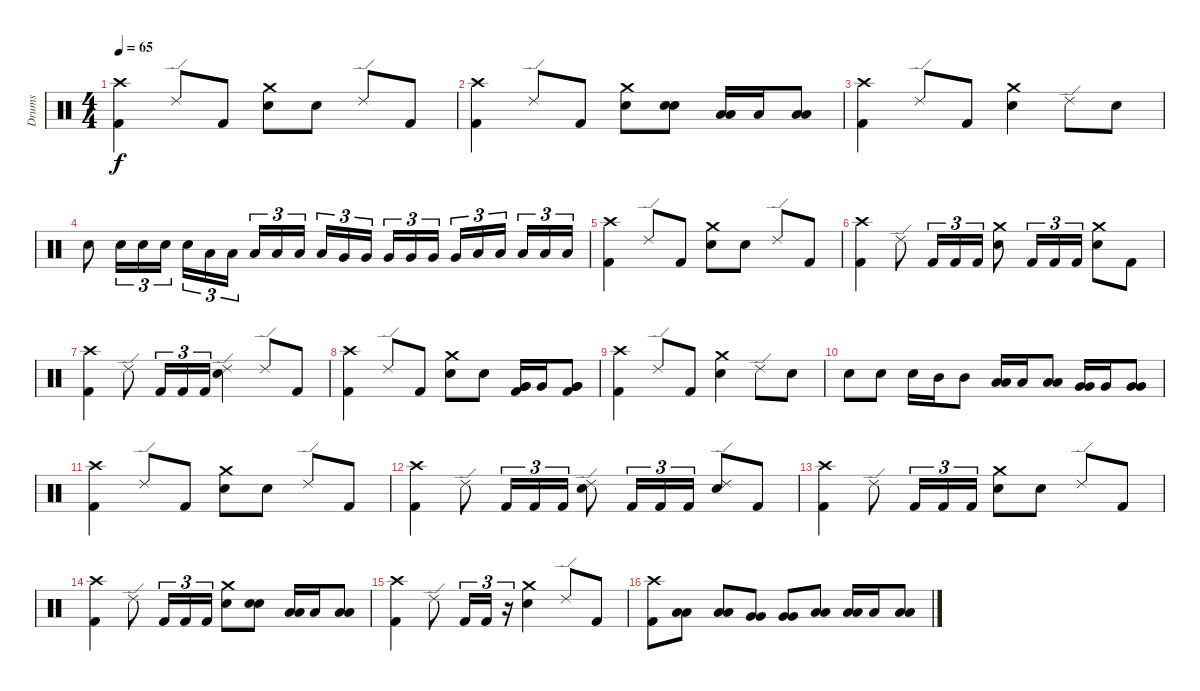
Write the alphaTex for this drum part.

\track ("Drums" "Drums") {instrument percussion}
\staff {score}
\articulation defaults
\ts (4 4)
\tempo 65
\clef neutral
\ks c
("Crash high (hit)" "Kick (hit) 2").4{dy f} "Ride (edge) 2".8 "Kick (hit) 2".8 ("Crash medium (hit)" "Electric Snare (hit)").8 "Electric Snare (hit)".8 "Ride (edge) 2".8 "Kick (hit) 2".8 |
("Crash high (hit)" "Kick (hit) 2").4 "Ride (edge) 2".8 "Kick (hit) 2".8 ("Crash medium (hit)" "Electric Snare (hit)").8 ("Electric Snare (hit)" "Electric Snare (hit)").8{bu 60} ("Low Floor Tom (hit)" "Low Floor Tom (hit)").16{bu 60} "Low Floor Tom (hit)".16 ("Low Floor Tom (hit)" "Low Floor Tom (hit)").8{bu 60} |
("Crash high (hit)" "Kick (hit) 2").4 "Ride (edge) 2".8 "Kick (hit) 2".8 ("Crash medium (hit)" "Electric Snare (hit)").4 "Ride (edge) 2".8 "Electric Snare (hit)".8 |
"Electric Snare (hit)".8 "Electric Snare (hit)".16{tu (3 2)} "Electric Snare (hit)".16{tu (3 2)} "Electric Snare (hit)".16{tu (3 2)} "Electric Snare (hit)".16{tu (3 2)} "Low Tom (hit)".16{tu (3 2)} "Low Tom (hit)".16{tu (3 2)} "Low Tom (hit)".16{tu (3 2)} "Low Tom (hit)".16{tu (3 2)} "Low Tom (hit)".16{tu (3 2)} "Low Tom (hit)".16{tu (3 2)} "Very Low Tom (hit)".16{tu (3 2)} "Very Low Tom (hit)".16{tu (3 2)} "Very Low Tom (hit)".16{tu (3 2)} "Very Low Tom (hit)".16{tu (3 2)} "Very Low Tom (hit)".16{tu (3 2)} "Very Low Tom (hit)".16{tu (3 2)} "Low Floor Tom (hit)".16{tu (3 2)} "Low Floor Tom (hit)".16{tu (3 2)} "Low Floor Tom (hit)".16{tu (3 2)} "Low Floor Tom (hit)".16{tu (3 2)} "Low Floor Tom (hit)".16{tu (3 2)} |
("Crash high (hit)" "Kick (hit) 2").4 "Ride (edge) 2".8 "Kick (hit) 2".8 ("Crash medium (hit)" "Electric Snare (hit)").8 "Electric Snare (hit)".8 "Ride (edge) 2".8 "Kick (hit) 2".8 |
("Crash high (hit)" "Kick (hit) 2").4 "Ride (edge) 2".8 "Kick (hit) 2".16{tu (3 2)} "Kick (hit) 2".16{tu (3 2)} "Kick (hit) 2".16{tu (3 2)} ("Crash medium (hit)" "Electric Snare (hit)").8 "Kick (hit) 2".16{tu (3 2)} "Kick (hit) 2".16{tu (3 2)} "Kick (hit) 2".16{tu (3 2)} ("Crash medium (hit)" "Electric Snare (hit)").8 "Kick (hit) 2".8 |
("Crash high (hit)" "Kick (hit) 2").4 "Ride (edge) 2".8 "Kick (hit) 2".16{tu (3 2)} "Kick (hit) 2".16{tu (3 2)} "Kick (hit) 2".16{tu (3 2)} ("Ride (edge) 2" "Electric Snare (hit)").4 "Ride (edge) 2".8 "Kick (hit) 2".8 |
("Crash high (hit)" "Kick (hit) 2").4 "Ride (edge) 2".8 "Kick (hit) 2".8 ("Crash medium (hit)" "Electric Snare (hit)").8 "Electric Snare (hit)".8 ("Very Low Tom (hit)" "Very Low Tom (hit)" "Kick (hit) 2").16{bu 60} "Very Low Tom (hit)".16 ("Very Low Tom (hit)" "Very Low Tom (hit)" "Kick (hit) 2").8{bu 60} |
("Crash high (hit)" "Kick (hit) 2").4 "Ride (edge) 2".8 "Kick (hit) 2".8 ("Crash medium (hit)" "Electric Snare (hit)").4 "Ride (edge) 2".8 "Electric Snare (hit)".8 |
"Electric Snare (hit)".8 "Electric Snare (hit)".8 "Electric Snare (hit)".16 "Mid Tom (hit)".16 "Mid Tom (hit)".8 ("Low Tom (hit)" "Low Tom (hit)").16{bu 60} "Low Tom (hit)".16 ("Low Tom (hit)" "Low Tom (hit)").8{bu 60} ("Very Low Tom (hit)" "Very Low Tom (hit)").16{bu 60} "Very Low Tom (hit)".16 ("Very Low Tom (hit)" "Very Low Tom (hit)").8{bu 60} |
("Crash high (hit)" "Kick (hit) 2").4 "Ride (edge) 2".8 "Kick (hit) 2".8 ("Crash medium (hit)" "Electric Snare (hit)").8 "Electric Snare (hit)".8 "Ride (edge) 2".8 "Kick (hit) 2".8 |
("Crash high (hit)" "Kick (hit) 2").4 "Ride (edge) 2".8 "Kick (hit) 2".16{tu (3 2)} "Kick (hit) 2".16{tu (3 2)} "Kick (hit) 2".16{tu (3 2)} ("Ride (edge) 2" "Electric Snare (hit)").8 "Kick (hit) 2".16{tu (3 2)} "Kick (hit) 2".16{tu (3 2)} "Kick (hit) 2".16{tu (3 2)} ("Ride (edge) 2" "Electric Snare (hit)").8 "Kick (hit) 2".8 |
("Crash high (hit)" "Kick (hit) 2").4 "Ride (edge) 2".8 "Kick (hit) 2".16{tu (3 2)} "Kick (hit) 2".16{tu (3 2)} "Kick (hit) 2".16{tu (3 2)} ("Crash medium (hit)" "Electric Snare (hit)").8 "Electric Snare (hit)".8 "Ride (edge) 2".8 "Kick (hit) 2".8 |
("Crash high (hit)" "Kick (hit) 2").4 "Ride (edge) 2".8 "Kick (hit) 2".16{tu (3 2)} "Kick (hit) 2".16{tu (3 2)} "Kick (hit) 2".16{tu (3 2)} ("Crash medium (hit)" "Electric Snare (hit)").8 ("Electric Snare (hit)" "Electric Snare (hit)").8{bu 60} ("Low Floor Tom (hit)" "Low Floor Tom (hit)").16{bu 60} "Low Floor Tom (hit)".16 ("Low Floor Tom (hit)" "Low Floor Tom (hit)").8{bu 60} |
("Crash high (hit)" "Kick (hit) 2").4 "Ride (edge) 2".8 "Kick (hit) 2".16{tu (3 2)} "Kick (hit) 2".16{tu (3 2)} r.16{tu (3 2)} ("Crash medium (hit)" "Electric Snare (hit)").4 "Ride (edge) 2".8 "Kick (hit) 2".8 |
("Crash high (hit)" "Kick (hit) 2").8 ("Low Tom (hit)" "Low Tom (hit)").8{bu 60} ("Low Tom (hit)" "Low Tom (hit)").8{bu 60} ("Very Low Tom (hit)" "Very Low Tom (hit)").8{bu 60} ("Very Low Tom (hit)" "Very Low Tom (hit)").8{bu 60} ("Low Floor Tom (hit)" "Low Floor Tom (hit)").8{bu 60} ("Low Floor Tom (hit)" "Low Floor Tom (hit)").16{bu 60} "Low Floor Tom (hit)".16 ("Low Floor Tom (hit)" "Low Floor Tom (hit)").8{bu 60}
